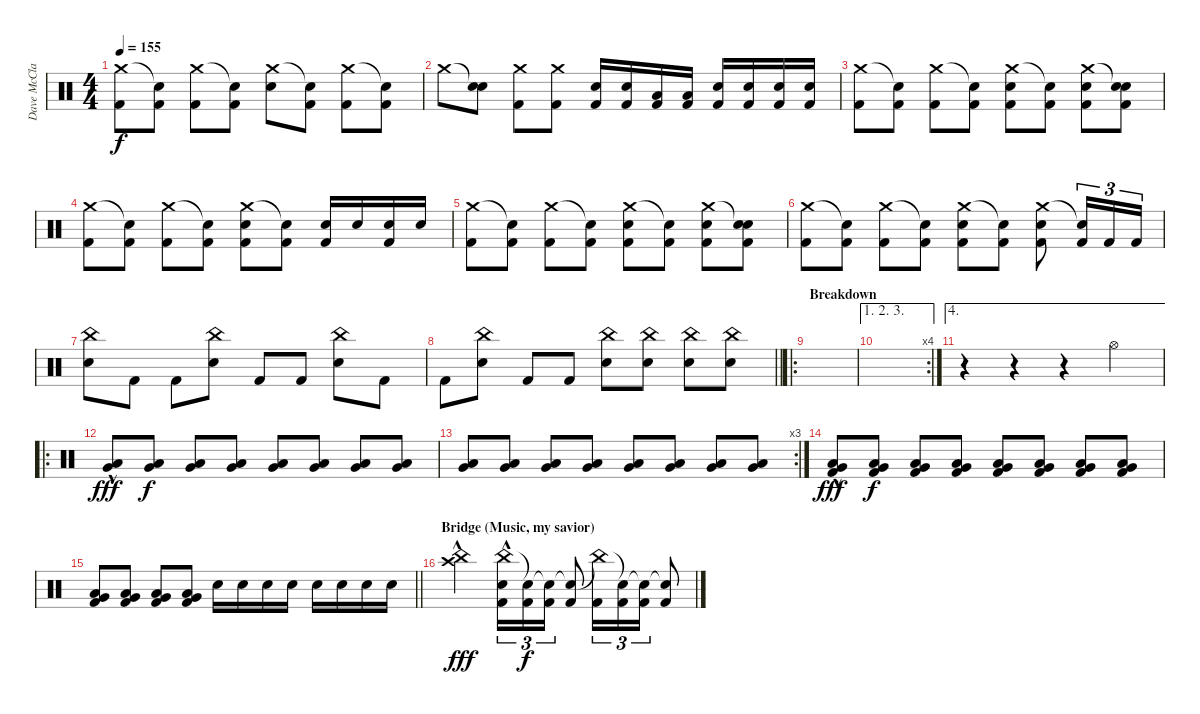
\track ("Dave McClain (Drums)" "Dave McCla") {instrument percussion}
\staff {score}
\articulation defaults
\ts (4 4)
\tempo 155
\clef neutral
\ks c
("Crash medium (hit)" "Kick (hit) 2").8{dy f} ("Snare (hit)"{t} "Kick (hit) 2").8 ("Crash medium (hit)" "Kick (hit) 2").8 ("Snare (hit)"{t} "Kick (hit) 2").8 ("Crash medium (hit)" "Electric Snare (hit)").8 ("Snare (hit)"{t} "Kick (hit) 2").8 ("Crash medium (hit)" "Kick (hit) 2").8 ("Snare (hit)"{t} "Kick (hit) 2").8 |
"Crash medium (hit)".8 ("Snare (hit)"{t} "Electric Snare (hit)").8 ("Crash medium (hit)" "Kick (hit) 2").8 ("Crash medium (hit)" "Kick (hit) 2").8 ("Electric Snare (hit)" "Kick (hit) 2").16 ("Electric Snare (hit)" "Kick (hit) 2").16 ("Low Tom (hit)" "Kick (hit) 2").16 ("Low Tom (hit)" "Kick (hit) 2").16 ("Electric Snare (hit)" "Kick (hit) 2").16 ("Electric Snare (hit)" "Kick (hit) 2").16 ("Electric Snare (hit)" "Kick (hit) 2").16 ("Electric Snare (hit)" "Kick (hit) 2").16 |
("Crash medium (hit)" "Kick (hit) 2").8 ("Snare (hit)"{t} "Kick (hit) 2").8 ("Crash medium (hit)" "Kick (hit) 2").8 ("Snare (hit)"{t} "Kick (hit) 2").8 ("Crash medium (hit)" "Electric Snare (hit)" "Kick (hit) 2").8 ("Snare (hit)"{t} "Kick (hit) 2").8 ("Crash medium (hit)" "Electric Snare (hit)" "Kick (hit) 2").8 ("Snare (hit)"{t} "Electric Snare (hit)" "Kick (hit) 2").8 |
("Crash medium (hit)" "Kick (hit) 2").8 ("Snare (hit)"{t} "Kick (hit) 2").8 ("Crash medium (hit)" "Kick (hit) 2").8 ("Snare (hit)"{t} "Kick (hit) 2").8 ("Crash medium (hit)" "Electric Snare (hit)" "Kick (hit) 2").8 ("Snare (hit)"{t} "Kick (hit) 2").8 ("Electric Snare (hit)" "Kick (hit) 2").16 "Electric Snare (hit)".16 ("Electric Snare (hit)" "Kick (hit) 2").16 "Electric Snare (hit)".16 |
("Crash medium (hit)" "Kick (hit) 2").8 ("Snare (hit)"{t} "Kick (hit) 2").8 ("Crash medium (hit)" "Kick (hit) 2").8 ("Snare (hit)"{t} "Kick (hit) 2").8 ("Crash medium (hit)" "Electric Snare (hit)" "Kick (hit) 2").8 ("Snare (hit)"{t} "Kick (hit) 2").8 ("Crash medium (hit)" "Electric Snare (hit)" "Kick (hit) 2").8 ("Snare (hit)"{t} "Electric Snare (hit)" "Kick (hit) 2").8 |
("Crash medium (hit)" "Kick (hit) 2").8 ("Snare (hit)"{t} "Kick (hit) 2").8 ("Crash medium (hit)" "Kick (hit) 2").8 ("Snare (hit)"{t} "Kick (hit) 2").8 ("Crash medium (hit)" "Electric Snare (hit)" "Kick (hit) 2").8 ("Snare (hit)"{t} "Kick (hit) 2").8 ("Crash medium (hit)" "Electric Snare (hit)" "Kick (hit) 2").8 ("Snare (hit)"{t} "Kick (hit) 2").16{tu (3 2)} "Kick (hit) 2".16{tu (3 2)} "Kick (hit) 2".16{tu (3 2)} |
("China (hit)" "Electric Snare (hit)").8 "Kick (hit) 2".8 "Kick (hit) 2".8 ("China (hit)" "Electric Snare (hit)").8 "Kick (hit) 2".8 "Kick (hit) 2".8 ("China (hit)" "Electric Snare (hit)").8 "Kick (hit) 2".8 |
\barLineRight lightlight "Kick (hit) 2".8
("China (hit)" "Electric Snare (hit)").8 "Kick (hit) 2".8 "Kick (hit) 2".8 ("China (hit)" "Electric Snare (hit)").8 ("China (hit)" "Electric Snare (hit)").8 ("China (hit)" "Electric Snare (hit)").8 ("China (hit)" "Electric Snare (hit)").8 |
\ro
\section ("" "Breakdown")
|
\ae (1 2 3)
\rc 4
|
\ae 4
r.4 r.4 r.4 "Hi-Hat (open)".4 |
\ro
("Very Low Tom (hit)"{hac} "Low Tom (hit)"{hac}).8{dy fff} ("Very Low Tom (hit)" "Low Tom (hit)").8{dy f} ("Very Low Tom (hit)" "Low Tom (hit)").8 ("Very Low Tom (hit)" "Low Tom (hit)").8 ("Very Low Tom (hit)" "Low Tom (hit)").8 ("Very Low Tom (hit)" "Low Tom (hit)").8 ("Very Low Tom (hit)" "Low Tom (hit)").8 ("Very Low Tom (hit)" "Low Tom (hit)").8 |
\rc 3
("Very Low Tom (hit)" "Low Tom (hit)").8 ("Very Low Tom (hit)" "Low Tom (hit)").8 ("Very Low Tom (hit)" "Low Tom (hit)").8 ("Very Low Tom (hit)" "Low Tom (hit)").8 ("Very Low Tom (hit)" "Low Tom (hit)").8 ("Very Low Tom (hit)" "Low Tom (hit)").8 ("Very Low Tom (hit)" "Low Tom (hit)").8 ("Very Low Tom (hit)" "Low Tom (hit)").8 |
("Very Low Tom (hit)"{hac} "Low Tom (hit)"{hac} "Kick (hit) 2"{hac}).8{dy fff} ("Very Low Tom (hit)" "Low Tom (hit)" "Kick (hit) 2").8{dy f} ("Very Low Tom (hit)" "Low Tom (hit)" "Kick (hit) 2").8 ("Very Low Tom (hit)" "Low Tom (hit)" "Kick (hit) 2").8 ("Very Low Tom (hit)" "Low Tom (hit)" "Kick (hit) 2").8 ("Very Low Tom (hit)" "Low Tom (hit)" "Kick (hit) 2").8 ("Very Low Tom (hit)" "Low Tom (hit)" "Kick (hit) 2").8 ("Very Low Tom (hit)" "Low Tom (hit)" "Kick (hit) 2").8 |
\barLineRight lightlight
("Very Low Tom (hit)" "Low Tom (hit)" "Kick (hit) 2").8 ("Very Low Tom (hit)" "Low Tom (hit)" "Kick (hit) 2").8 ("Very Low Tom (hit)" "Low Tom (hit)" "Kick (hit) 2").8 ("Very Low Tom (hit)" "Low Tom (hit)" "Kick (hit) 2").8 "Electric Snare (hit)".16 "Electric Snare (hit)".16 "Electric Snare (hit)".16 "Electric Snare (hit)".16 "Electric Snare (hit)".16 "Electric Snare (hit)".16 "Electric Snare (hit)".16 "Electric Snare (hit)".16 |
\section ("" "Bridge (Music, my savior)")
("China (hit)"{hac} "Crash high (hit)"{hac}).2{dy fff} ("China (hit)"{hac} "Electric Snare (hit)" "Kick (hit) 2").16{tu (3 2)} ("Snare (hit)"{t} "Kick (hit) 2").16{tu (3 2) dy f} ("Snare (hit)"{t} "Kick (hit) 2").16{tu (3 2)} ("Snare (hit)"{t} "Kick (hit) 2").8 ("China (hit)"{t} "Kick (hit) 2").16{tu (3 2)} ("Snare (hit)"{t} "Kick (hit) 2").16{tu (3 2)} ("Snare (hit)"{t} "Kick (hit) 2").16{tu (3 2)} ("Snare (hit)"{t} "Kick (hit) 2").8
